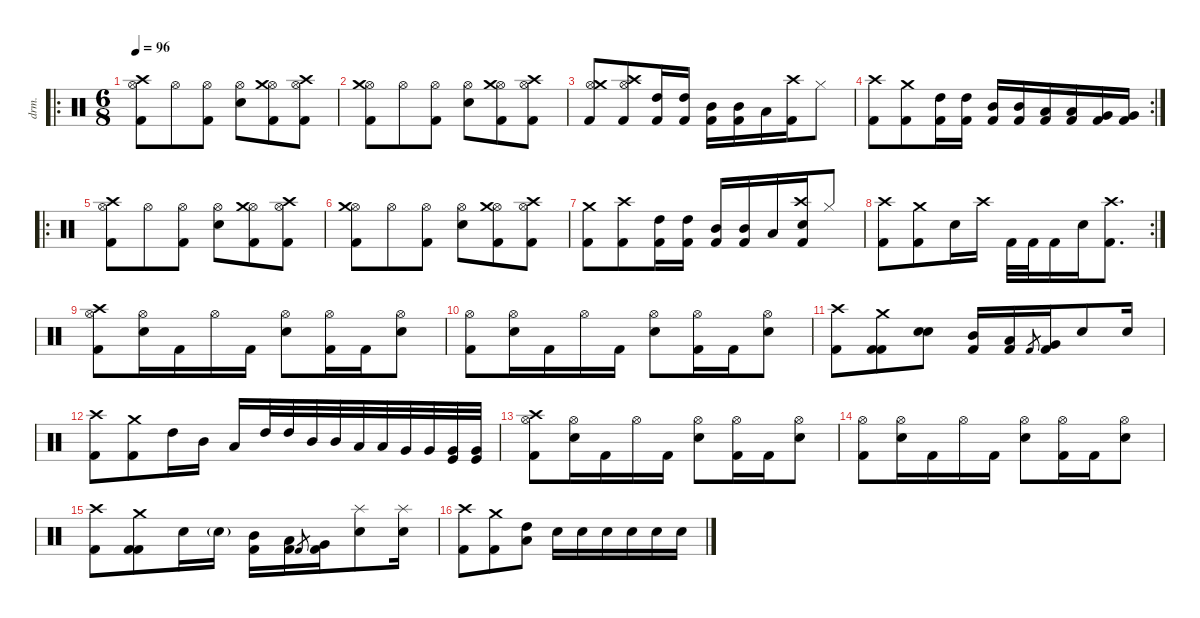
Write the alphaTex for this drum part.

\defaultSystemsLayout 4
\hideDynamics
\bracketExtendMode nobrackets
\otherSystemsTrackNameOrientation horizontal
\track ("Drums" "drm.") {defaultSystemsLayout 4 instrument percussion}
\staff {score}
\articulation defaults
\ro
\ts (6 8)
\tempo 96
\clef neutral
\ks aminor
("Hi-Hat (open)" "Crash high (hit)" "Kick (hit) 2").8{dy f beam Down} "Hi-Hat (open)".8{beam Down} ("Hi-Hat (open)" "Kick (hit) 2").8{beam Down} ("Hi-Hat (open)" "Snare (hit) 2").8{beam Down} ("Hi-Hat (open)" "Crash medium (hit)" "Kick (hit) 2").8{beam Down} ("Hi-Hat (open)" "Crash high (hit)" "Kick (hit) 2").8{beam Down} |
("Hi-Hat (open)" "Crash medium (hit)" "Kick (hit) 2").8{beam Down} "Hi-Hat (open)".8{beam Down} ("Hi-Hat (open)" "Kick (hit) 2").8{beam Down} ("Hi-Hat (open)" "Snare (hit) 2").8{beam Down} ("Hi-Hat (open)" "Crash medium (hit)" "Kick (hit) 2").8{beam Down} ("Hi-Hat (open)" "Crash high (hit)" "Kick (hit) 2").8{beam Down} |
("Hi-Hat (open)" "Crash medium (hit)" "Kick (hit) 2").8{beam Up} ("Hi-Hat (open)" "Crash high (hit)" "Kick (hit) 2").8{beam Up} ("High Tom (hit)" "Kick (hit) 2").16{dy ff beam Up} ("High Tom (hit)" "Kick (hit) 2").16{beam Up} ("Mid Tom (hit)" "Kick (hit) 2").16{beam Down} ("Mid Tom (hit)" "Kick (hit) 2").16{beam Down} "Low Tom (hit)".16{beam Down} ("Crash high (hit)" "Kick (hit) 2").16{dy fff beam Down} "Hi-Hat (closed)".8{dy f beam Down} |
\rc 2
("Crash high (hit)" "Kick (hit) 2").8{dy fff beam Down} ("Crash medium (hit)" "Kick (hit) 2").8{beam Down} ("High Tom (hit)" "Kick (hit) 2").16{dy ff beam Down} ("High Tom (hit)" "Kick (hit) 2").16{beam Down} ("Mid Tom (hit)" "Kick (hit) 2").16{beam Up} ("Mid Tom (hit)" "Kick (hit) 2").16{beam Up} ("Low Tom (hit)" "Kick (hit) 2").16{beam Up} ("Low Tom (hit)" "Kick (hit) 2").16{beam Up} ("Very Low Tom (hit)" "Kick (hit) 2").16{dy f beam Up} ("Very Low Tom (hit)" "Kick (hit) 2").16{beam Up} |
\ro
("Hi-Hat (open)" "Crash high (hit)" "Kick (hit) 2").8{beam Down} "Hi-Hat (open)".8{beam Down} ("Hi-Hat (open)" "Kick (hit) 2").8{beam Down} ("Hi-Hat (open)" "Snare (hit) 2").8{beam Down} ("Hi-Hat (open)" "Crash medium (hit)" "Kick (hit) 2").8{beam Down} ("Hi-Hat (open)" "Crash high (hit)" "Kick (hit) 2").8{beam Down} |
("Hi-Hat (open)" "Crash medium (hit)" "Kick (hit) 2").8{beam Down} "Hi-Hat (open)".8{beam Down} ("Hi-Hat (open)" "Kick (hit) 2").8{beam Down} ("Hi-Hat (open)" "Snare (hit) 2").8{beam Down} ("Hi-Hat (open)" "Crash medium (hit)" "Kick (hit) 2").8{beam Down} ("Hi-Hat (open)" "Crash high (hit)" "Kick (hit) 2").8{beam Down} |
("Crash medium (hit)" "Kick (hit) 2").8{dy ff beam Down} ("Crash high (hit)" "Kick (hit) 2").8{beam Down} ("High Tom (hit)" "Kick (hit) 2").16{beam Down} ("High Tom (hit)" "Kick (hit) 2").16{beam Down} ("Mid Tom (hit)" "Kick (hit) 2").16{beam Up} ("Mid Tom (hit)" "Kick (hit) 2").16{beam Up} "Low Tom (hit)".16{beam Up} ("Crash high (hit)" "Snare (hit) 2" "Kick (hit) 2").16{dy fff beam Up} "Hi-Hat (closed)".8{dy f beam Up} |
\rc 2
("Crash high (hit)" "Kick (hit) 2").8{dy fff beam Down} ("Crash medium (hit)" "Kick (hit) 2").8{beam Down} "Snare (hit) 2".16{dy ff beam Down} "Crash high (hit)".16{beam Down} "Kick (hit) 2".32{beam Down} "Kick (hit) 2".32{beam Down} "Kick (hit) 2".16{beam Down} "Snare (hit) 2".16{beam Down} ("Crash high (hit)" "Kick (hit) 2").8{d dy fff beam Down} |
("Hi-Hat (open)" "Crash high (hit)" "Kick (hit) 2").8{dy ff beam Down} ("Hi-Hat (open)" "Snare (hit) 2").16{beam Down} "Kick (hit) 2".16{beam Down} "Hi-Hat (open)".16{beam Down} "Kick (hit) 2".16{dy f beam Down} ("Hi-Hat (open)" "Snare (hit) 2").8{dy ff beam Down} ("Hi-Hat (open)" "Kick (hit) 2").16{beam Down} "Kick (hit) 2".16{dy f beam Down} ("Hi-Hat (open)" "Snare (hit) 2").8{dy ff beam Down} |
("Hi-Hat (open)" "Kick (hit) 2").8{beam Down} ("Hi-Hat (open)" "Snare (hit) 2").16{beam Down} "Kick (hit) 2".16{dy f beam Down} "Hi-Hat (open)".16{dy ff beam Down} "Kick (hit) 2".16{dy f beam Down} ("Hi-Hat (open)" "Snare (hit) 2").8{dy ff beam Down} ("Hi-Hat (open)" "Kick (hit) 2").16{beam Down} "Kick (hit) 2".16{dy f beam Down} ("Hi-Hat (open)" "Snare (hit) 2").8{dy ff beam Down} |
("Crash high (hit)" "Kick (hit) 2").8{dy fff beam Down} ("Crash medium (hit)" "Kick (hit) 2" "Kick (hit) 2").8{beam Down} ("Snare (hit) 2" "Metronome (bell)").8{dy ff beam Down} ("Mid Tom (hit)" "Kick (hit) 2").16{beam Up} ("Low Tom (hit)" "Kick (hit) 2").16{beam Up} "Kick (hit) 2".8{gr dy mf beam Up} ("Very Low Tom (hit)" "Kick (hit) 2").16{dy f beam Up} "Snare (hit) 2".8{dy ff beam Up} "Snare (hit) 2".16{beam Up} |
("Crash high (hit)" "Kick (hit) 2").8{dy fff beam Down} ("Crash medium (hit)" "Kick (hit) 2").8{beam Down} "High Tom (hit)".16{dy ff beam Down} "Mid Tom (hit)".16{beam Down} "Low Tom (hit)".16{dy f beam Up} "High Tom (hit)".32{beam Up} "High Tom (hit)".32{beam Up} "Mid Tom (hit)".32{beam Up} "Mid Tom (hit)".32{beam Up} "Low Tom (hit)".32{beam Up} "Low Tom (hit)".32{beam Up} "Very Low Tom (hit)".32{beam Up} "Very Low Tom (hit)".32{beam Up} ("Very Low Tom (hit)" "Kick (hit)").32{beam Up} ("Very Low Tom (hit)" "Kick (hit)").32{beam Up} |
("Hi-Hat (open)" "Crash high (hit)" "Kick (hit) 2").8{dy ff beam Down} ("Hi-Hat (open)" "Snare (hit) 2").16{beam Down} "Kick (hit) 2".16{beam Down} "Hi-Hat (open)".16{beam Down} "Kick (hit) 2".16{dy f beam Down} ("Hi-Hat (open)" "Snare (hit) 2").8{dy ff beam Down} ("Hi-Hat (open)" "Kick (hit) 2").16{beam Down} "Kick (hit) 2".16{dy f beam Down} ("Hi-Hat (open)" "Snare (hit) 2").8{dy ff beam Down} |
("Hi-Hat (open)" "Kick (hit) 2").8{beam Down} ("Hi-Hat (open)" "Snare (hit) 2").16{beam Down} "Kick (hit) 2".16{dy f beam Down} "Hi-Hat (open)".16{dy ff beam Down} "Kick (hit) 2".16{dy f beam Down} ("Hi-Hat (open)" "Snare (hit) 2").8{dy ff beam Down} ("Hi-Hat (open)" "Kick (hit) 2").16{beam Down} "Kick (hit) 2".16{dy f beam Down} ("Hi-Hat (open)" "Snare (hit) 2").8{dy ff beam Down} |
("Crash high (hit)" "Kick (hit) 2").8{dy fff beam Down} ("Crash medium (hit)" "Kick (hit) 2" "Kick (hit) 2").8{beam Down} "Snare (hit) 2".16{dy ff beam Down} "Snare (hit) 2"{g}.16{dy mf beam Down} ("Mid Tom (hit)" "Kick (hit) 2").16{dy ff beam Down} ("Low Tom (hit)" "Kick (hit) 2").16{beam Down} "Kick (hit) 2".8{gr dy f beam Up} ("Very Low Tom (hit)" "Kick (hit) 2").16{beam Down} ("Splash (hit)" "Snare (hit) 2").8{dy fff beam Down} ("Splash (hit)" "Snare (hit) 2").16{beam Down} |
("Crash high (hit)" "Kick (hit) 2").8{beam Down} ("Crash medium (hit)" "Kick (hit) 2").8{beam Down} ("Low Tom (hit)" "High Tom (hit)").8{dy ff beam Down} "Snare (hit) 2".16{dy mf beam Down} "Snare (hit) 2".16{beam Down} "Snare (hit) 2".16{beam Down} "Snare (hit) 2".16{beam Down} "Snare (hit) 2".16{beam Down} "Snare (hit) 2".16{beam Down}
